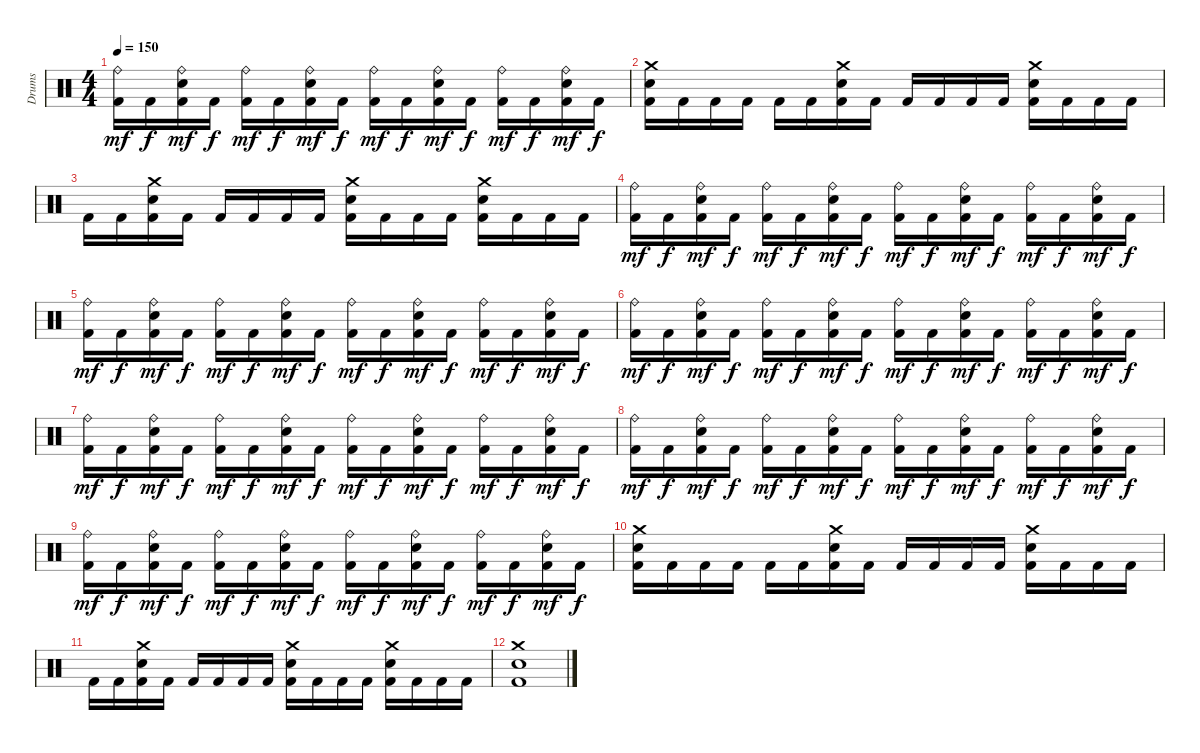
\track ("Drums" "Drums") {instrument percussion}
\staff {score}
\articulation defaults
\ts (4 4)
\tempo 150
\clef neutral
\ks c
("Kick (hit) 2" "Ride (bell)").16{dy mf} "Kick (hit) 2".16{dy f} ("Kick (hit) 2" "Snare (hit) 2" "Ride (bell)").16{dy mf} "Kick (hit) 2".16{dy f} ("Kick (hit) 2" "Ride (bell)").16{dy mf} "Kick (hit) 2".16{dy f} ("Kick (hit) 2" "Snare (hit) 2" "Ride (bell)").16{dy mf} "Kick (hit) 2".16{dy f} ("Kick (hit) 2" "Ride (bell)").16{dy mf} "Kick (hit) 2".16{dy f} ("Kick (hit) 2" "Snare (hit) 2" "Ride (bell)").16{dy mf} "Kick (hit) 2".16{dy f} ("Kick (hit) 2" "Ride (bell)").16{dy mf} "Kick (hit) 2".16{dy f} ("Kick (hit) 2" "Snare (hit) 2" "Ride (bell)").16{dy mf} "Kick (hit) 2".16{dy f} |
("Kick (hit) 2" "Snare (hit) 2" "Crash medium (hit)").16 "Kick (hit) 2".16 "Kick (hit) 2".16 "Kick (hit) 2".16 "Kick (hit) 2".16 "Kick (hit) 2".16 ("Kick (hit) 2" "Snare (hit) 2" "Crash medium (hit)").16 "Kick (hit) 2".16 "Kick (hit) 2".16 "Kick (hit) 2".16 "Kick (hit) 2".16 "Kick (hit) 2".16 ("Kick (hit) 2" "Snare (hit) 2" "Crash medium (hit)").16 "Kick (hit) 2".16 "Kick (hit) 2".16 "Kick (hit) 2".16 |
"Kick (hit) 2".16 "Kick (hit) 2".16 ("Kick (hit) 2" "Snare (hit) 2" "Crash medium (hit)").16 "Kick (hit) 2".16 "Kick (hit) 2".16 "Kick (hit) 2".16 "Kick (hit) 2".16 "Kick (hit) 2".16 ("Kick (hit) 2" "Snare (hit) 2" "Crash medium (hit)").16 "Kick (hit) 2".16 "Kick (hit) 2".16 "Kick (hit) 2".16 ("Kick (hit) 2" "Snare (hit) 2" "Crash medium (hit)").16 "Kick (hit) 2".16 "Kick (hit) 2".16 "Kick (hit) 2".16 |
("Kick (hit) 2" "Ride (bell)").16{dy mf} "Kick (hit) 2".16{dy f} ("Kick (hit) 2" "Snare (hit) 2" "Ride (bell)").16{dy mf} "Kick (hit) 2".16{dy f} ("Kick (hit) 2" "Ride (bell)").16{dy mf} "Kick (hit) 2".16{dy f} ("Kick (hit) 2" "Snare (hit) 2" "Ride (bell)").16{dy mf} "Kick (hit) 2".16{dy f} ("Kick (hit) 2" "Ride (bell)").16{dy mf} "Kick (hit) 2".16{dy f} ("Kick (hit) 2" "Snare (hit) 2" "Ride (bell)").16{dy mf} "Kick (hit) 2".16{dy f} ("Kick (hit) 2" "Ride (bell)").16{dy mf} "Kick (hit) 2".16{dy f} ("Kick (hit) 2" "Snare (hit) 2" "Ride (bell)").16{dy mf} "Kick (hit) 2".16{dy f} |
("Kick (hit) 2" "Ride (bell)").16{dy mf} "Kick (hit) 2".16{dy f} ("Kick (hit) 2" "Snare (hit) 2" "Ride (bell)").16{dy mf} "Kick (hit) 2".16{dy f} ("Kick (hit) 2" "Ride (bell)").16{dy mf} "Kick (hit) 2".16{dy f} ("Kick (hit) 2" "Snare (hit) 2" "Ride (bell)").16{dy mf} "Kick (hit) 2".16{dy f} ("Kick (hit) 2" "Ride (bell)").16{dy mf} "Kick (hit) 2".16{dy f} ("Kick (hit) 2" "Snare (hit) 2" "Ride (bell)").16{dy mf} "Kick (hit) 2".16{dy f} ("Kick (hit) 2" "Ride (bell)").16{dy mf} "Kick (hit) 2".16{dy f} ("Kick (hit) 2" "Snare (hit) 2" "Ride (bell)").16{dy mf} "Kick (hit) 2".16{dy f} |
("Kick (hit) 2" "Ride (bell)").16{dy mf} "Kick (hit) 2".16{dy f} ("Kick (hit) 2" "Snare (hit) 2" "Ride (bell)").16{dy mf} "Kick (hit) 2".16{dy f} ("Kick (hit) 2" "Ride (bell)").16{dy mf} "Kick (hit) 2".16{dy f} ("Kick (hit) 2" "Snare (hit) 2" "Ride (bell)").16{dy mf} "Kick (hit) 2".16{dy f} ("Kick (hit) 2" "Ride (bell)").16{dy mf} "Kick (hit) 2".16{dy f} ("Kick (hit) 2" "Snare (hit) 2" "Ride (bell)").16{dy mf} "Kick (hit) 2".16{dy f} ("Kick (hit) 2" "Ride (bell)").16{dy mf} "Kick (hit) 2".16{dy f} ("Kick (hit) 2" "Snare (hit) 2" "Ride (bell)").16{dy mf} "Kick (hit) 2".16{dy f} |
("Kick (hit) 2" "Ride (bell)").16{dy mf} "Kick (hit) 2".16{dy f} ("Kick (hit) 2" "Snare (hit) 2" "Ride (bell)").16{dy mf} "Kick (hit) 2".16{dy f} ("Kick (hit) 2" "Ride (bell)").16{dy mf} "Kick (hit) 2".16{dy f} ("Kick (hit) 2" "Snare (hit) 2" "Ride (bell)").16{dy mf} "Kick (hit) 2".16{dy f} ("Kick (hit) 2" "Ride (bell)").16{dy mf} "Kick (hit) 2".16{dy f} ("Kick (hit) 2" "Snare (hit) 2" "Ride (bell)").16{dy mf} "Kick (hit) 2".16{dy f} ("Kick (hit) 2" "Ride (bell)").16{dy mf} "Kick (hit) 2".16{dy f} ("Kick (hit) 2" "Snare (hit) 2" "Ride (bell)").16{dy mf} "Kick (hit) 2".16{dy f} |
("Kick (hit) 2" "Ride (bell)").16{dy mf} "Kick (hit) 2".16{dy f} ("Kick (hit) 2" "Snare (hit) 2" "Ride (bell)").16{dy mf} "Kick (hit) 2".16{dy f} ("Kick (hit) 2" "Ride (bell)").16{dy mf} "Kick (hit) 2".16{dy f} ("Kick (hit) 2" "Snare (hit) 2" "Ride (bell)").16{dy mf} "Kick (hit) 2".16{dy f} ("Kick (hit) 2" "Ride (bell)").16{dy mf} "Kick (hit) 2".16{dy f} ("Kick (hit) 2" "Snare (hit) 2" "Ride (bell)").16{dy mf} "Kick (hit) 2".16{dy f} ("Kick (hit) 2" "Ride (bell)").16{dy mf} "Kick (hit) 2".16{dy f} ("Kick (hit) 2" "Snare (hit) 2" "Ride (bell)").16{dy mf} "Kick (hit) 2".16{dy f} |
("Kick (hit) 2" "Ride (bell)").16{dy mf} "Kick (hit) 2".16{dy f} ("Kick (hit) 2" "Snare (hit) 2" "Ride (bell)").16{dy mf} "Kick (hit) 2".16{dy f} ("Kick (hit) 2" "Ride (bell)").16{dy mf} "Kick (hit) 2".16{dy f} ("Kick (hit) 2" "Snare (hit) 2" "Ride (bell)").16{dy mf} "Kick (hit) 2".16{dy f} ("Kick (hit) 2" "Ride (bell)").16{dy mf} "Kick (hit) 2".16{dy f} ("Kick (hit) 2" "Snare (hit) 2" "Ride (bell)").16{dy mf} "Kick (hit) 2".16{dy f} ("Kick (hit) 2" "Ride (bell)").16{dy mf} "Kick (hit) 2".16{dy f} ("Kick (hit) 2" "Snare (hit) 2" "Ride (bell)").16{dy mf} "Kick (hit) 2".16{dy f} |
("Kick (hit) 2" "Snare (hit) 2" "Crash medium (hit)").16 "Kick (hit) 2".16 "Kick (hit) 2".16 "Kick (hit) 2".16 "Kick (hit) 2".16 "Kick (hit) 2".16 ("Kick (hit) 2" "Snare (hit) 2" "Crash medium (hit)").16 "Kick (hit) 2".16 "Kick (hit) 2".16 "Kick (hit) 2".16 "Kick (hit) 2".16 "Kick (hit) 2".16 ("Kick (hit) 2" "Snare (hit) 2" "Crash medium (hit)").16 "Kick (hit) 2".16 "Kick (hit) 2".16 "Kick (hit) 2".16 |
"Kick (hit) 2".16 "Kick (hit) 2".16 ("Kick (hit) 2" "Snare (hit) 2" "Crash medium (hit)").16 "Kick (hit) 2".16 "Kick (hit) 2".16 "Kick (hit) 2".16 "Kick (hit) 2".16 "Kick (hit) 2".16 ("Kick (hit) 2" "Snare (hit) 2" "Crash medium (hit)").16 "Kick (hit) 2".16 "Kick (hit) 2".16 "Kick (hit) 2".16 ("Kick (hit) 2" "Snare (hit) 2" "Crash medium (hit)").16 "Kick (hit) 2".16 "Kick (hit) 2".16 "Kick (hit) 2".16 |
("Kick (hit) 2" "Snare (hit) 2" "Crash medium (hit)").1
